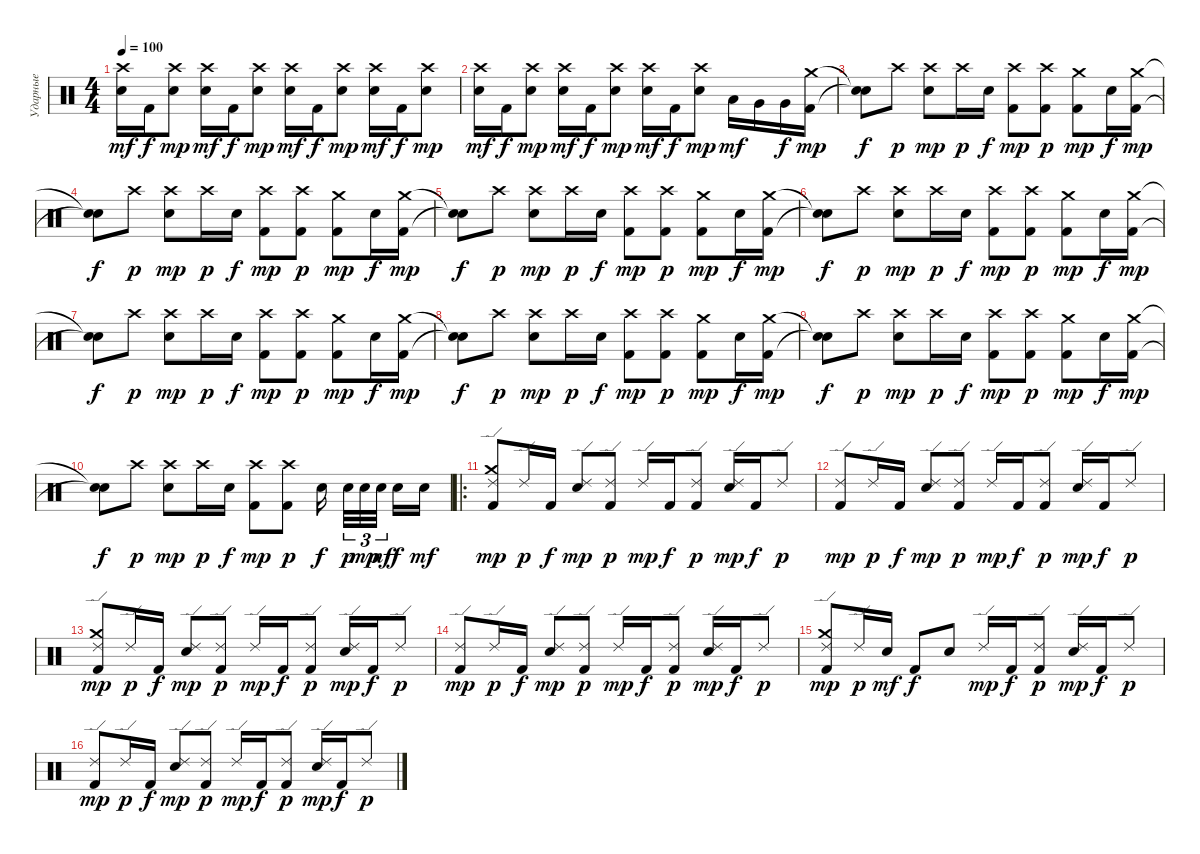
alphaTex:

\track ("Ударные" "Ударные") {instrument percussion}
\staff {score}
\articulation defaults
\ts (4 4)
\tempo 100
\clef neutral
\ks c
("Crash high (hit)" "Snare (hit) 2").16{dy mf} "Kick (hit) 2".16{dy f} ("Crash high (hit)" "Snare (hit) 2").8{dy mp} ("Crash high (hit)" "Snare (hit) 2").16{dy mf} "Kick (hit) 2".16{dy f} ("Crash high (hit)" "Snare (hit) 2").8{dy mp} ("Crash high (hit)" "Snare (hit) 2").16{dy mf} "Kick (hit) 2".16{dy f} ("Crash high (hit)" "Snare (hit) 2").8{dy mp} ("Crash high (hit)" "Snare (hit) 2").16{dy mf} "Kick (hit) 2".16{dy f} ("Crash high (hit)" "Snare (hit) 2").8{dy mp} |
("Crash high (hit)" "Snare (hit) 2").16{dy mf} "Kick (hit) 2".16{dy f} ("Crash high (hit)" "Snare (hit) 2").8{dy mp} ("Crash high (hit)" "Snare (hit) 2").16{dy mf} "Kick (hit) 2".16{dy f} ("Crash high (hit)" "Snare (hit) 2").8{dy mp} ("Crash high (hit)" "Snare (hit) 2").16{dy mf} "Kick (hit) 2".16{dy f} ("Crash high (hit)" "Snare (hit) 2").8{dy mp} "Low Tom (hit)".16{dy mf} "Very Low Tom (hit)".16 "Very Low Tom (hit)".16{dy f} ("Crash medium (hit)" "Kick (hit) 2").16{dy mp} |
("Snare (hit)"{t} "Snare (hit)"{t}).8{dy f} "Crash high (hit)".8{dy p} ("Crash high (hit)" "Snare (hit) 2").8{dy mp} "Crash high (hit)".16{dy p} "Snare (hit) 2".16{dy f} ("Crash high (hit)" "Kick (hit) 2").8{dy mp} ("Crash high (hit)" "Kick (hit) 2").8{dy p} ("Crash medium (hit)" "Kick (hit) 2").8{dy mp} "Snare (hit) 2".16{dy f} ("Crash medium (hit)" "Kick (hit) 2").16{dy mp} |
("Snare (hit)"{t} "Snare (hit)"{t}).8{dy f} "Crash high (hit)".8{dy p} ("Crash high (hit)" "Snare (hit) 2").8{dy mp} "Crash high (hit)".16{dy p} "Snare (hit) 2".16{dy f} ("Crash high (hit)" "Kick (hit) 2").8{dy mp} ("Crash high (hit)" "Kick (hit) 2").8{dy p} ("Crash medium (hit)" "Kick (hit) 2").8{dy mp} "Snare (hit) 2".16{dy f} ("Crash medium (hit)" "Kick (hit) 2").16{dy mp} |
("Snare (hit)"{t} "Snare (hit)"{t}).8{dy f} "Crash high (hit)".8{dy p} ("Crash high (hit)" "Snare (hit) 2").8{dy mp} "Crash high (hit)".16{dy p} "Snare (hit) 2".16{dy f} ("Crash high (hit)" "Kick (hit) 2").8{dy mp} ("Crash high (hit)" "Kick (hit) 2").8{dy p} ("Crash medium (hit)" "Kick (hit) 2").8{dy mp} "Snare (hit) 2".16{dy f} ("Crash medium (hit)" "Kick (hit) 2").16{dy mp} |
("Snare (hit)"{t} "Snare (hit)"{t}).8{dy f} "Crash high (hit)".8{dy p} ("Crash high (hit)" "Snare (hit) 2").8{dy mp} "Crash high (hit)".16{dy p} "Snare (hit) 2".16{dy f} ("Crash high (hit)" "Kick (hit) 2").8{dy mp} ("Crash high (hit)" "Kick (hit) 2").8{dy p} ("Crash medium (hit)" "Kick (hit) 2").8{dy mp} "Snare (hit) 2".16{dy f} ("Crash medium (hit)" "Kick (hit) 2").16{dy mp} |
("Snare (hit)"{t} "Snare (hit)"{t}).8{dy f} "Crash high (hit)".8{dy p} ("Crash high (hit)" "Snare (hit) 2").8{dy mp} "Crash high (hit)".16{dy p} "Snare (hit) 2".16{dy f} ("Crash high (hit)" "Kick (hit) 2").8{dy mp} ("Crash high (hit)" "Kick (hit) 2").8{dy p} ("Crash medium (hit)" "Kick (hit) 2").8{dy mp} "Snare (hit) 2".16{dy f} ("Crash medium (hit)" "Kick (hit) 2").16{dy mp} |
("Snare (hit)"{t} "Snare (hit)"{t}).8{dy f} "Crash high (hit)".8{dy p} ("Crash high (hit)" "Snare (hit) 2").8{dy mp} "Crash high (hit)".16{dy p} "Snare (hit) 2".16{dy f} ("Crash high (hit)" "Kick (hit) 2").8{dy mp} ("Crash high (hit)" "Kick (hit) 2").8{dy p} ("Crash medium (hit)" "Kick (hit) 2").8{dy mp} "Snare (hit) 2".16{dy f} ("Crash medium (hit)" "Kick (hit) 2").16{dy mp} |
("Snare (hit)"{t} "Snare (hit)"{t}).8{dy f} "Crash high (hit)".8{dy p} ("Crash high (hit)" "Snare (hit) 2").8{dy mp} "Crash high (hit)".16{dy p} "Snare (hit) 2".16{dy f} ("Crash high (hit)" "Kick (hit) 2").8{dy mp} ("Crash high (hit)" "Kick (hit) 2").8{dy p} ("Crash medium (hit)" "Kick (hit) 2").8{dy mp} "Snare (hit) 2".16{dy f} ("Crash medium (hit)" "Kick (hit) 2").16{dy mp} |
("Snare (hit)"{t} "Snare (hit)"{t}).8{dy f} "Crash high (hit)".8{dy p} ("Crash high (hit)" "Snare (hit) 2").8{dy mp} "Crash high (hit)".16{dy p} "Snare (hit) 2".16{dy f} ("Crash high (hit)" "Kick (hit) 2").8{dy mp} ("Crash high (hit)" "Kick (hit) 2").8{dy p} "Snare (hit) 2".16{dy f} "Snare (hit) 2".32{tu (3 2) dy p} "Snare (hit) 2".32{tu (3 2) dy mp} "Snare (hit) 2".32{tu (3 2) dy mf} "Snare (hit) 2".16{dy f} "Snare (hit) 2".16{dy mf} |
\ro
("Crash medium (hit)" "Ride (edge) 2" "Kick (hit) 2").8{dy mp} "Ride (edge) 2".16{dy p} "Kick (hit) 2".16{dy f} ("Ride (edge) 2" "Snare (hit) 2").8{dy mp} ("Ride (edge) 2" "Kick (hit) 2").8{dy p} "Ride (edge) 2".16{dy mp} "Kick (hit) 2".16{dy f} ("Ride (edge) 2" "Kick (hit) 2").8{dy p} ("Ride (edge) 2" "Snare (hit) 2").16{dy mp} "Kick (hit) 2".16{dy f} "Ride (edge) 2".8{dy p} |
("Ride (edge) 2" "Kick (hit) 2").8{dy mp} "Ride (edge) 2".16{dy p} "Kick (hit) 2".16{dy f} ("Ride (edge) 2" "Snare (hit) 2").8{dy mp} ("Ride (edge) 2" "Kick (hit) 2").8{dy p} "Ride (edge) 2".16{dy mp} "Kick (hit) 2".16{dy f} ("Ride (edge) 2" "Kick (hit) 2").8{dy p} ("Ride (edge) 2" "Snare (hit) 2").16{dy mp} "Kick (hit) 2".16{dy f} "Ride (edge) 2".8{dy p} |
("Crash medium (hit)" "Ride (edge) 2" "Kick (hit) 2").8{dy mp} "Ride (edge) 2".16{dy p} "Kick (hit) 2".16{dy f} ("Ride (edge) 2" "Snare (hit) 2").8{dy mp} ("Ride (edge) 2" "Kick (hit) 2").8{dy p} "Ride (edge) 2".16{dy mp} "Kick (hit) 2".16{dy f} ("Ride (edge) 2" "Kick (hit) 2").8{dy p} ("Ride (edge) 2" "Snare (hit) 2").16{dy mp} "Kick (hit) 2".16{dy f} "Ride (edge) 2".8{dy p} |
("Ride (edge) 2" "Kick (hit) 2").8{dy mp} "Ride (edge) 2".16{dy p} "Kick (hit) 2".16{dy f} ("Ride (edge) 2" "Snare (hit) 2").8{dy mp} ("Ride (edge) 2" "Kick (hit) 2").8{dy p} "Ride (edge) 2".16{dy mp} "Kick (hit) 2".16{dy f} ("Ride (edge) 2" "Kick (hit) 2").8{dy p} ("Ride (edge) 2" "Snare (hit) 2").16{dy mp} "Kick (hit) 2".16{dy f} "Ride (edge) 2".8{dy p} |
("Crash medium (hit)" "Ride (edge) 2" "Kick (hit) 2").8{dy mp} "Ride (edge) 2".16{dy p} "Snare (hit) 2".16{dy mf} "Kick (hit) 2".8{dy f} "Snare (hit) 2".8 "Ride (edge) 2".16{dy mp} "Kick (hit) 2".16{dy f} ("Ride (edge) 2" "Kick (hit) 2").8{dy p} ("Ride (edge) 2" "Snare (hit) 2").16{dy mp} "Kick (hit) 2".16{dy f} "Ride (edge) 2".8{dy p} |
("Ride (edge) 2" "Kick (hit) 2").8{dy mp} "Ride (edge) 2".16{dy p} "Kick (hit) 2".16{dy f} ("Ride (edge) 2" "Snare (hit) 2").8{dy mp} ("Ride (edge) 2" "Kick (hit) 2").8{dy p} "Ride (edge) 2".16{dy mp} "Kick (hit) 2".16{dy f} ("Ride (edge) 2" "Kick (hit) 2").8{dy p} ("Ride (edge) 2" "Snare (hit) 2").16{dy mp} "Kick (hit) 2".16{dy f} "Ride (edge) 2".8{dy p}
